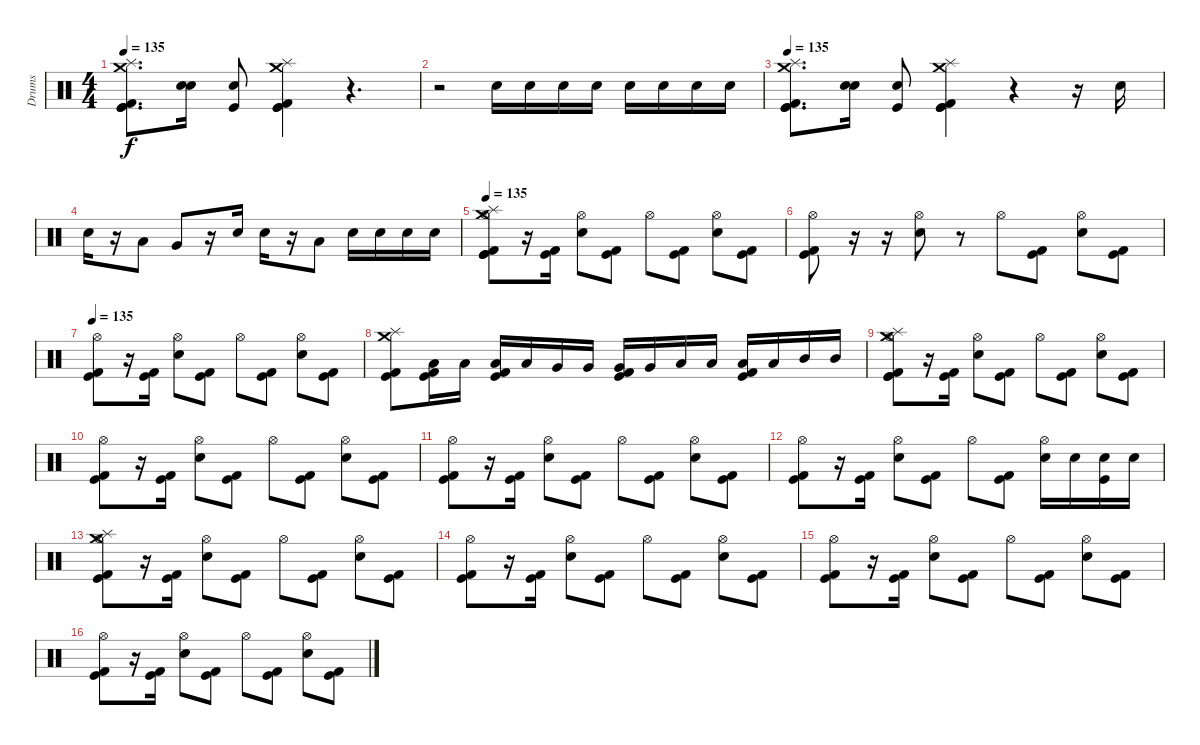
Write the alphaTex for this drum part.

\track ("Drums" "Drums") {instrument percussion}
\staff {score}
\articulation defaults
\ts (4 4)
\tempo 135
\clef neutral
\ks c
("Crash medium (hit)" "Splash (hit)" "Kick (hit)" "Kick (hit) 2" "Kick (hit)").8{d dy f} ("Snare (hit) 2" "Electric Snare (hit)").16 ("Kick (hit)" "Electric Snare (hit)").8 ("Crash medium (hit)" "Splash (hit)" "Kick (hit)" "Kick (hit) 2" "Kick (hit)").4 r.4{d} |
r.2 "Snare (hit) 2".16 "Snare (hit) 2".16 "Snare (hit) 2".16 "Snare (hit) 2".16 "Snare (hit) 2".16 "Snare (hit) 2".16 "Snare (hit) 2".16 "Snare (hit) 2".16 |
\tempo 135
("Crash medium (hit)" "Splash (hit)" "Kick (hit)" "Kick (hit) 2" "Kick (hit)").8{d} ("Snare (hit) 2" "Electric Snare (hit)").16 ("Kick (hit)" "Electric Snare (hit)").8 ("Crash medium (hit)" "Splash (hit)" "Kick (hit)" "Kick (hit) 2" "Kick (hit)").4 r.4 r.16 "Snare (hit) 2".16 |
"Snare (hit) 2".16 r.16 "Low Tom (hit)".8 "Very Low Tom (hit)".8 r.16 "Snare (hit) 2".16 "Snare (hit) 2".16 r.16 "Low Tom (hit)".8 "Snare (hit) 2".16 "Snare (hit) 2".16 "Snare (hit) 2".16 "Snare (hit) 2".16 |
\tempo 135
("Hi-Hat (open)" "Kick (hit)" "Kick (hit) 2" "Splash (hit)" "Crash medium (hit)" "Kick (hit)").8 r.16 ("Kick (hit)" "Kick (hit) 2").16 ("Hi-Hat (open)" "Snare (hit) 2").8 ("Kick (hit)" "Kick (hit) 2").8 "Hi-Hat (open)".8 ("Kick (hit)" "Kick (hit) 2").8 ("Hi-Hat (open)" "Snare (hit) 2").8 ("Kick (hit) 2" "Kick (hit)").8 |
("Hi-Hat (open)" "Kick (hit)" "Kick (hit) 2").8 r.16 r.16 ("Hi-Hat (open)" "Snare (hit) 2").8 r.8 "Hi-Hat (open)".8 ("Kick (hit)" "Kick (hit) 2").8 ("Hi-Hat (open)" "Snare (hit) 2").8 ("Kick (hit) 2" "Kick (hit)").8 |
\tempo 135
("Hi-Hat (open)" "Kick (hit)" "Kick (hit) 2").8 r.16 ("Kick (hit)" "Kick (hit) 2").16 ("Hi-Hat (open)" "Snare (hit) 2").8 ("Kick (hit)" "Kick (hit) 2").8 "Hi-Hat (open)".8 ("Kick (hit)" "Kick (hit) 2").8 ("Hi-Hat (open)" "Snare (hit) 2").8 ("Kick (hit) 2" "Kick (hit)").8 |
("Splash (hit)" "Crash medium (hit)" "Kick (hit)" "Kick (hit) 2").8 ("Kick (hit) 2" "Kick (hit)" "Low Floor Tom (hit)").16 "Low Floor Tom (hit)".16 ("Kick (hit) 2" "Kick (hit)" "Low Floor Tom (hit)").16 "Low Floor Tom (hit)".16 "Very Low Tom (hit)".16 "Very Low Tom (hit)".16 ("Kick (hit)" "Kick (hit) 2" "Very Low Tom (hit)").16 "Very Low Tom (hit)".16 "Low Tom (hit)".16 "Low Tom (hit)".16 ("Kick (hit) 2" "Kick (hit)" "Low Tom (hit)").16 "Low Tom (hit)".16 "Mid Tom (hit)".16 "Mid Tom (hit)".16 |
("Hi-Hat (open)" "Kick (hit)" "Kick (hit) 2" "Splash (hit)" "Crash medium (hit)" "Kick (hit)").8 r.16 ("Kick (hit)" "Kick (hit) 2").16 ("Hi-Hat (open)" "Snare (hit) 2").8 ("Kick (hit)" "Kick (hit) 2").8 "Hi-Hat (open)".8 ("Kick (hit)" "Kick (hit) 2").8 ("Hi-Hat (open)" "Snare (hit) 2").8 ("Kick (hit) 2" "Kick (hit)").8 |
("Hi-Hat (open)" "Kick (hit)" "Kick (hit) 2").8 r.16 ("Kick (hit)" "Kick (hit) 2").16 ("Hi-Hat (open)" "Snare (hit) 2").8 ("Kick (hit)" "Kick (hit) 2").8 "Hi-Hat (open)".8 ("Kick (hit)" "Kick (hit) 2").8 ("Hi-Hat (open)" "Snare (hit) 2").8 ("Kick (hit) 2" "Kick (hit)").8 |
("Hi-Hat (open)" "Kick (hit)" "Kick (hit) 2").8 r.16 ("Kick (hit)" "Kick (hit) 2").16 ("Hi-Hat (open)" "Snare (hit) 2").8 ("Kick (hit)" "Kick (hit) 2").8 "Hi-Hat (open)".8 ("Kick (hit)" "Kick (hit) 2").8 ("Hi-Hat (open)" "Snare (hit) 2").8 ("Kick (hit) 2" "Kick (hit)").8 |
("Hi-Hat (open)" "Kick (hit)" "Kick (hit) 2").8 r.16 ("Kick (hit)" "Kick (hit) 2").16 ("Hi-Hat (open)" "Snare (hit) 2").8 ("Kick (hit)" "Kick (hit) 2").8 "Hi-Hat (open)".8 ("Kick (hit)" "Kick (hit) 2").8 ("Hi-Hat (open)" "Snare (hit) 2").16 "Snare (hit) 2".16 ("Kick (hit)" "Snare (hit) 2").16 "Snare (hit) 2".16 |
("Hi-Hat (open)" "Kick (hit)" "Kick (hit) 2" "Splash (hit)" "Crash medium (hit)").8 r.16 ("Kick (hit)" "Kick (hit) 2").16 ("Hi-Hat (open)" "Snare (hit) 2").8 ("Kick (hit)" "Kick (hit) 2").8 "Hi-Hat (open)".8 ("Kick (hit)" "Kick (hit) 2").8 ("Hi-Hat (open)" "Snare (hit) 2").8 ("Kick (hit) 2" "Kick (hit)").8 |
("Hi-Hat (open)" "Kick (hit)" "Kick (hit) 2").8 r.16 ("Kick (hit)" "Kick (hit) 2").16 ("Hi-Hat (open)" "Snare (hit) 2").8 ("Kick (hit)" "Kick (hit) 2").8 "Hi-Hat (open)".8 ("Kick (hit)" "Kick (hit) 2").8 ("Hi-Hat (open)" "Snare (hit) 2").8 ("Kick (hit) 2" "Kick (hit)").8 |
("Hi-Hat (open)" "Kick (hit)" "Kick (hit) 2").8 r.16 ("Kick (hit)" "Kick (hit) 2").16 ("Hi-Hat (open)" "Snare (hit) 2").8 ("Kick (hit)" "Kick (hit) 2").8 "Hi-Hat (open)".8 ("Kick (hit)" "Kick (hit) 2").8 ("Hi-Hat (open)" "Snare (hit) 2").8 ("Kick (hit) 2" "Kick (hit)").8 |
("Hi-Hat (open)" "Kick (hit)" "Kick (hit) 2").8 r.16 ("Kick (hit)" "Kick (hit) 2").16 ("Hi-Hat (open)" "Snare (hit) 2").8 ("Kick (hit)" "Kick (hit) 2").8 "Hi-Hat (open)".8 ("Kick (hit)" "Kick (hit) 2").8 ("Hi-Hat (open)" "Snare (hit) 2").8 ("Kick (hit) 2" "Kick (hit)").8
